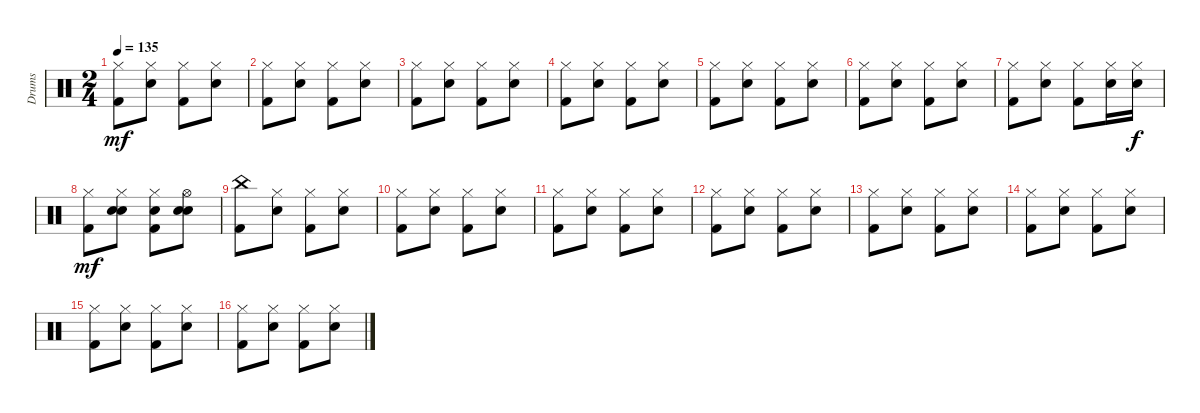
\track ("Drums" "Drums") {instrument percussion}
\staff {score}
\articulation defaults
\ts (2 4)
\tempo 135
\clef neutral
\ks c
("Hi-Hat (closed)" "Kick (hit) 2").8{dy mf} ("Hi-Hat (closed)" "Electric Snare (hit)").8 ("Hi-Hat (closed)" "Kick (hit) 2").8 ("Hi-Hat (closed)" "Electric Snare (hit)").8 |
("Hi-Hat (closed)" "Kick (hit) 2").8 ("Hi-Hat (closed)" "Electric Snare (hit)").8 ("Hi-Hat (closed)" "Kick (hit) 2").8 ("Hi-Hat (closed)" "Electric Snare (hit)").8 |
("Hi-Hat (closed)" "Kick (hit) 2").8 ("Hi-Hat (closed)" "Electric Snare (hit)").8 ("Hi-Hat (closed)" "Kick (hit) 2").8 ("Hi-Hat (closed)" "Electric Snare (hit)").8 |
("Hi-Hat (closed)" "Kick (hit) 2").8 ("Hi-Hat (closed)" "Electric Snare (hit)").8 ("Hi-Hat (closed)" "Kick (hit) 2").8 ("Hi-Hat (closed)" "Electric Snare (hit)").8 |
("Hi-Hat (closed)" "Kick (hit) 2").8 ("Hi-Hat (closed)" "Electric Snare (hit)").8 ("Hi-Hat (closed)" "Kick (hit) 2").8 ("Hi-Hat (closed)" "Electric Snare (hit)").8 |
("Hi-Hat (closed)" "Kick (hit) 2").8 ("Hi-Hat (closed)" "Electric Snare (hit)").8 ("Hi-Hat (closed)" "Kick (hit) 2").8 ("Hi-Hat (closed)" "Electric Snare (hit)").8 |
("Hi-Hat (closed)" "Kick (hit) 2").8 ("Hi-Hat (closed)" "Electric Snare (hit)").8 ("Hi-Hat (closed)" "Kick (hit) 2").8 ("Hi-Hat (closed)" "Electric Snare (hit)").16 ("Hi-Hat (closed)" "Electric Snare (hit)").16{dy f} |
("Hi-Hat (closed)" "Kick (hit) 2").8{dy mf} ("Hi-Hat (closed)" "Electric Snare (hit)" "Hand Clap (hit)").8 ("Hi-Hat (closed)" "Hand Clap (hit)" "Kick (hit) 2").8 ("Hi-Hat (open)" "Electric Snare (hit)" "Hand Clap (hit)").8 |
("China (hit)" "Kick (hit) 2").8 ("Hi-Hat (closed)" "Electric Snare (hit)").8 ("Hi-Hat (closed)" "Kick (hit) 2").8 ("Hi-Hat (closed)" "Electric Snare (hit)").8 |
("Hi-Hat (closed)" "Kick (hit) 2").8 ("Hi-Hat (closed)" "Electric Snare (hit)").8 ("Hi-Hat (closed)" "Kick (hit) 2").8 ("Hi-Hat (closed)" "Electric Snare (hit)").8 |
("Hi-Hat (closed)" "Kick (hit) 2").8 ("Hi-Hat (closed)" "Electric Snare (hit)").8 ("Hi-Hat (closed)" "Kick (hit) 2").8 ("Hi-Hat (closed)" "Electric Snare (hit)").8 |
("Hi-Hat (closed)" "Kick (hit) 2").8 ("Hi-Hat (closed)" "Electric Snare (hit)").8 ("Hi-Hat (closed)" "Kick (hit) 2").8 ("Hi-Hat (closed)" "Electric Snare (hit)").8 |
("Hi-Hat (closed)" "Kick (hit) 2").8 ("Hi-Hat (closed)" "Electric Snare (hit)").8 ("Hi-Hat (closed)" "Kick (hit) 2").8 ("Hi-Hat (closed)" "Electric Snare (hit)").8 |
("Hi-Hat (closed)" "Kick (hit) 2").8 ("Hi-Hat (closed)" "Electric Snare (hit)").8 ("Hi-Hat (closed)" "Kick (hit) 2").8 ("Hi-Hat (closed)" "Electric Snare (hit)").8 |
("Hi-Hat (closed)" "Kick (hit) 2").8 ("Hi-Hat (closed)" "Electric Snare (hit)").8 ("Hi-Hat (closed)" "Kick (hit) 2").8 ("Hi-Hat (closed)" "Electric Snare (hit)").8 |
("Hi-Hat (closed)" "Kick (hit) 2").8 ("Hi-Hat (closed)" "Electric Snare (hit)").8 ("Hi-Hat (closed)" "Kick (hit) 2").8 ("Hi-Hat (closed)" "Electric Snare (hit)").8
